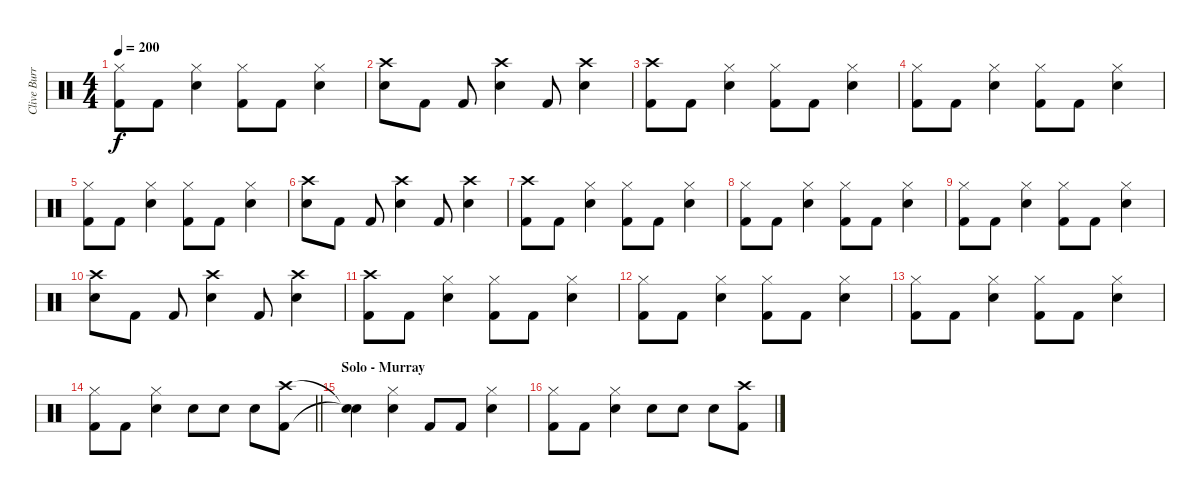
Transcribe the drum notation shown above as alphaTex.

\track ("Clive Burr" "Clive Burr") {instrument percussion}
\staff {score}
\articulation defaults
\ts (4 4)
\tempo 200
\clef neutral
\ks c
("Hi-Hat (closed)" "Kick (hit) 2").8{dy f} "Kick (hit) 2".8 ("Hi-Hat (closed)" "Snare (hit) 2").4 ("Hi-Hat (closed)" "Kick (hit) 2").8 "Kick (hit) 2".8 ("Hi-Hat (closed)" "Snare (hit) 2").4 |
("Crash high (hit)" "Snare (hit) 2").8 "Kick (hit) 2".8 "Kick (hit) 2".8 ("Crash high (hit)" "Snare (hit) 2").4 "Kick (hit) 2".8 ("Crash high (hit)" "Snare (hit) 2").4 |
("Crash high (hit)" "Kick (hit) 2").8 "Kick (hit) 2".8 ("Hi-Hat (closed)" "Snare (hit) 2").4 ("Hi-Hat (closed)" "Kick (hit) 2").8 "Kick (hit) 2".8 ("Hi-Hat (closed)" "Snare (hit) 2").4 |
("Hi-Hat (closed)" "Kick (hit) 2").8 "Kick (hit) 2".8 ("Hi-Hat (closed)" "Snare (hit) 2").4 ("Hi-Hat (closed)" "Kick (hit) 2").8 "Kick (hit) 2".8 ("Hi-Hat (closed)" "Snare (hit) 2").4 |
("Hi-Hat (closed)" "Kick (hit) 2").8 "Kick (hit) 2".8 ("Hi-Hat (closed)" "Snare (hit) 2").4 ("Hi-Hat (closed)" "Kick (hit) 2").8 "Kick (hit) 2".8 ("Hi-Hat (closed)" "Snare (hit) 2").4 |
("Crash high (hit)" "Snare (hit) 2").8 "Kick (hit) 2".8 "Kick (hit) 2".8 ("Crash high (hit)" "Snare (hit) 2").4 "Kick (hit) 2".8 ("Crash high (hit)" "Snare (hit) 2").4 |
("Crash high (hit)" "Kick (hit) 2").8 "Kick (hit) 2".8 ("Hi-Hat (closed)" "Snare (hit) 2").4 ("Hi-Hat (closed)" "Kick (hit) 2").8 "Kick (hit) 2".8 ("Hi-Hat (closed)" "Snare (hit) 2").4 |
("Hi-Hat (closed)" "Kick (hit) 2").8 "Kick (hit) 2".8 ("Hi-Hat (closed)" "Snare (hit) 2").4 ("Hi-Hat (closed)" "Kick (hit) 2").8 "Kick (hit) 2".8 ("Hi-Hat (closed)" "Snare (hit) 2").4 |
("Hi-Hat (closed)" "Kick (hit) 2").8 "Kick (hit) 2".8 ("Hi-Hat (closed)" "Snare (hit) 2").4 ("Hi-Hat (closed)" "Kick (hit) 2").8 "Kick (hit) 2".8 ("Hi-Hat (closed)" "Snare (hit) 2").4 |
("Crash high (hit)" "Snare (hit) 2").8 "Kick (hit) 2".8 "Kick (hit) 2".8 ("Crash high (hit)" "Snare (hit) 2").4 "Kick (hit) 2".8 ("Crash high (hit)" "Snare (hit) 2").4 |
("Crash high (hit)" "Kick (hit) 2").8 "Kick (hit) 2".8 ("Hi-Hat (closed)" "Snare (hit) 2").4 ("Hi-Hat (closed)" "Kick (hit) 2").8 "Kick (hit) 2".8 ("Hi-Hat (closed)" "Snare (hit) 2").4 |
("Hi-Hat (closed)" "Kick (hit) 2").8 "Kick (hit) 2".8 ("Hi-Hat (closed)" "Snare (hit) 2").4 ("Hi-Hat (closed)" "Kick (hit) 2").8 "Kick (hit) 2".8 ("Hi-Hat (closed)" "Snare (hit) 2").4 |
("Hi-Hat (closed)" "Kick (hit) 2").8 "Kick (hit) 2".8 ("Hi-Hat (closed)" "Snare (hit) 2").4 ("Hi-Hat (closed)" "Kick (hit) 2").8 "Kick (hit) 2".8 ("Hi-Hat (closed)" "Snare (hit) 2").4 |
\barLineRight lightlight
("Hi-Hat (closed)" "Kick (hit) 2").8 "Kick (hit) 2".8 ("Hi-Hat (closed)" "Snare (hit) 2").4 "Snare (hit) 2".8 "Snare (hit) 2".8 "Snare (hit) 2".8 ("Crash high (hit)" "Kick (hit) 2").8 |
\section ("" "Solo - Murray")
("Snare (hit)"{t} "Snare (hit)"{t}).4 ("Hi-Hat (closed)" "Snare (hit) 2").4 "Kick (hit) 2".8 "Kick (hit) 2".8 ("Hi-Hat (closed)" "Snare (hit) 2").4 |
("Hi-Hat (closed)" "Kick (hit) 2").8 "Kick (hit) 2".8 ("Hi-Hat (closed)" "Snare (hit) 2").4 "Snare (hit) 2".8 "Snare (hit) 2".8 "Snare (hit) 2".8 ("Crash high (hit)" "Kick (hit) 2").8
